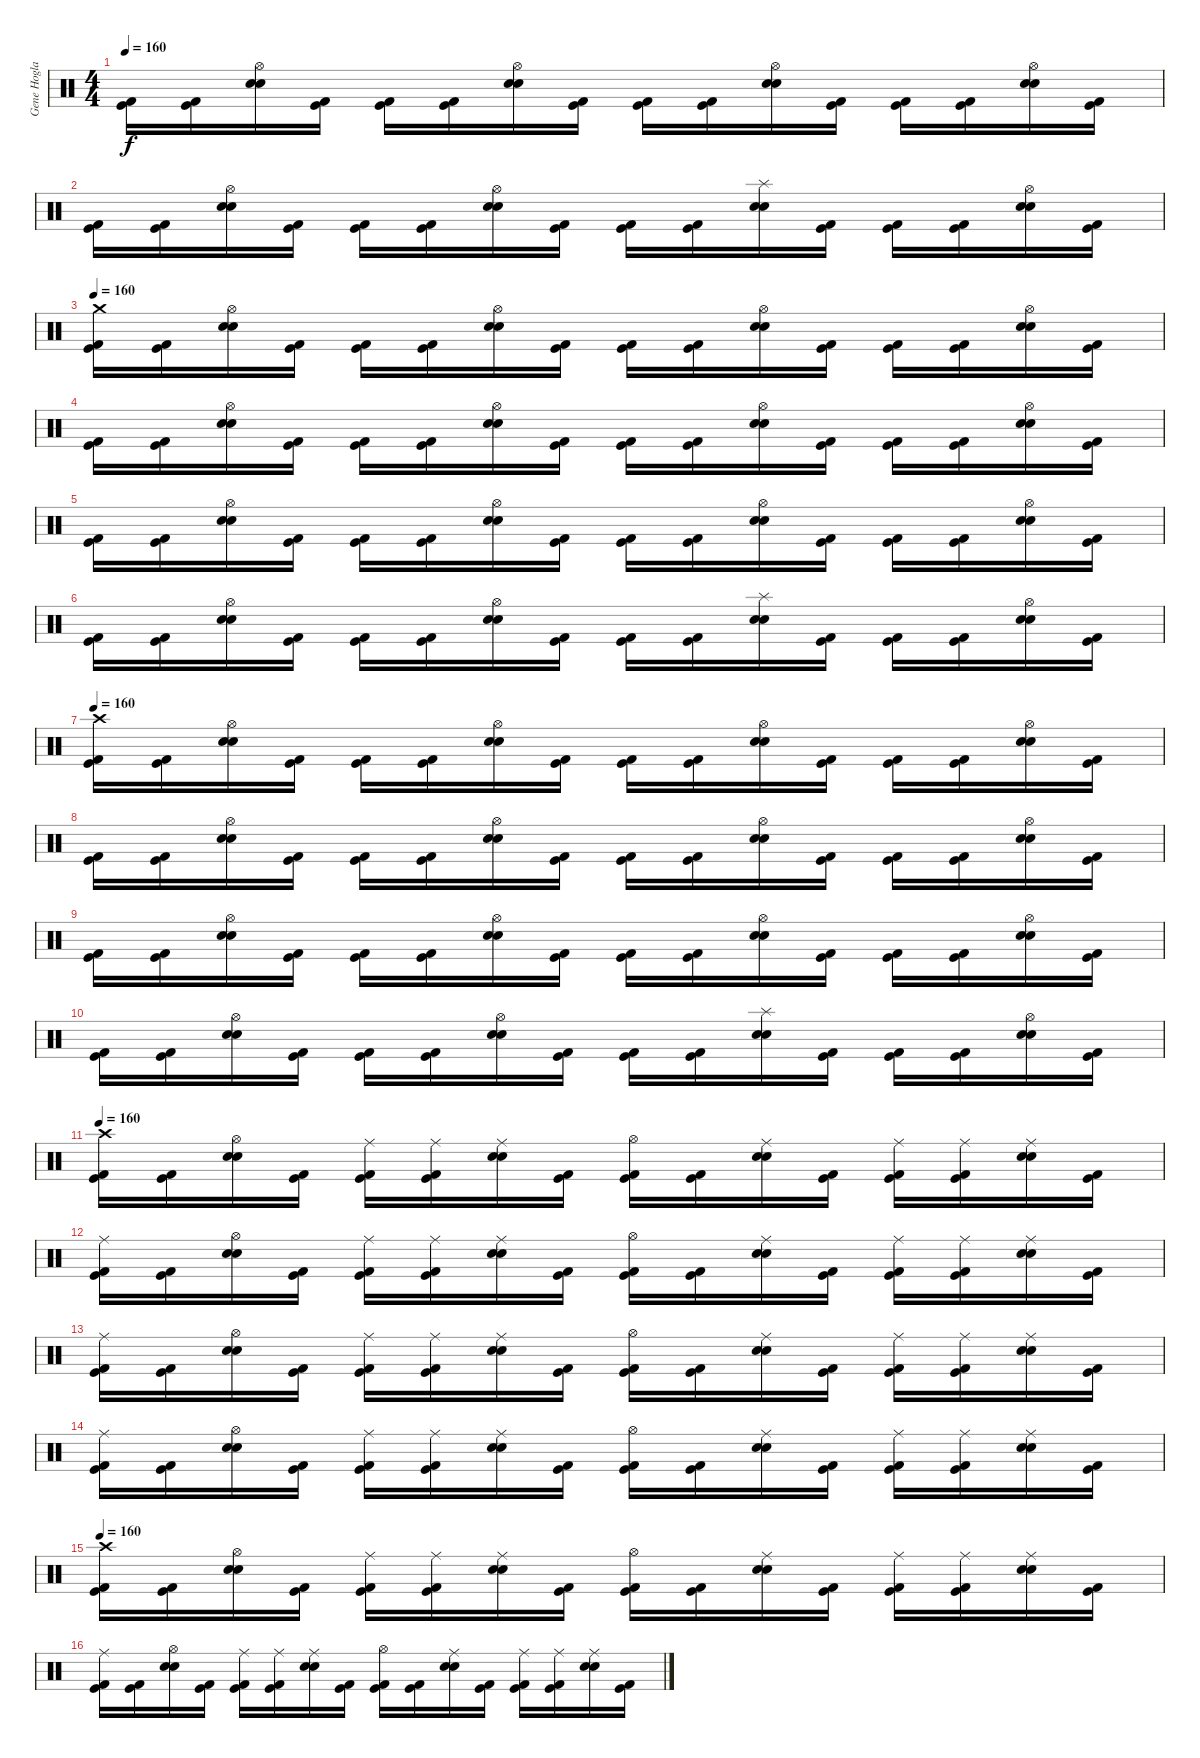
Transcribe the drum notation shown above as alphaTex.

\track ("Gene Hoglan" "Gene Hogla") {instrument percussion}
\staff {score}
\articulation defaults
\ts (4 4)
\tempo 160
\clef neutral
\ks c
("Kick (hit) 2" "Kick (hit)").16{dy f} ("Kick (hit) 2" "Kick (hit)").16 ("Hi-Hat (open)" "Snare (hit) 2" "Electric Snare (hit)").16 ("Kick (hit) 2" "Kick (hit)").16 ("Kick (hit) 2" "Kick (hit)").16 ("Kick (hit) 2" "Kick (hit)").16 ("Hi-Hat (open)" "Snare (hit) 2" "Electric Snare (hit)").16 ("Kick (hit) 2" "Kick (hit)").16 ("Kick (hit) 2" "Kick (hit)").16 ("Kick (hit) 2" "Kick (hit)").16 ("Hi-Hat (open)" "Snare (hit) 2" "Electric Snare (hit)").16 ("Kick (hit) 2" "Kick (hit)").16 ("Kick (hit) 2" "Kick (hit)").16 ("Kick (hit) 2" "Kick (hit)").16 ("Hi-Hat (open)" "Snare (hit) 2" "Electric Snare (hit)").16 ("Kick (hit) 2" "Kick (hit)").16 |
("Kick (hit) 2" "Kick (hit)").16 ("Kick (hit) 2" "Kick (hit)").16 ("Hi-Hat (open)" "Snare (hit) 2" "Electric Snare (hit)").16 ("Kick (hit) 2" "Kick (hit)").16 ("Kick (hit) 2" "Kick (hit)").16 ("Kick (hit) 2" "Kick (hit)").16 ("Hi-Hat (open)" "Snare (hit) 2" "Electric Snare (hit)").16 ("Kick (hit) 2" "Kick (hit)").16 ("Kick (hit) 2" "Kick (hit)").16 ("Kick (hit) 2" "Kick (hit)").16 ("Splash (hit)" "Snare (hit) 2" "Electric Snare (hit)").16 ("Kick (hit) 2" "Kick (hit)").16 ("Kick (hit) 2" "Kick (hit)").16 ("Kick (hit) 2" "Kick (hit)").16 ("Hi-Hat (open)" "Snare (hit) 2" "Electric Snare (hit)").16 ("Kick (hit) 2" "Kick (hit)").16 |
\tempo 160
("Crash medium (hit)" "Kick (hit) 2" "Kick (hit)").16 ("Kick (hit) 2" "Kick (hit)").16 ("Hi-Hat (open)" "Snare (hit) 2" "Electric Snare (hit)").16 ("Kick (hit) 2" "Kick (hit)").16 ("Kick (hit) 2" "Kick (hit)").16 ("Kick (hit) 2" "Kick (hit)").16 ("Hi-Hat (open)" "Snare (hit) 2" "Electric Snare (hit)").16 ("Kick (hit) 2" "Kick (hit)").16 ("Kick (hit) 2" "Kick (hit)").16 ("Kick (hit) 2" "Kick (hit)").16 ("Hi-Hat (open)" "Snare (hit) 2" "Electric Snare (hit)").16 ("Kick (hit) 2" "Kick (hit)").16 ("Kick (hit) 2" "Kick (hit)").16 ("Kick (hit) 2" "Kick (hit)").16 ("Hi-Hat (open)" "Snare (hit) 2" "Electric Snare (hit)").16 ("Kick (hit) 2" "Kick (hit)").16 |
("Kick (hit) 2" "Kick (hit)").16 ("Kick (hit) 2" "Kick (hit)").16 ("Hi-Hat (open)" "Snare (hit) 2" "Electric Snare (hit)").16 ("Kick (hit) 2" "Kick (hit)").16 ("Kick (hit) 2" "Kick (hit)").16 ("Kick (hit) 2" "Kick (hit)").16 ("Hi-Hat (open)" "Snare (hit) 2" "Electric Snare (hit)").16 ("Kick (hit) 2" "Kick (hit)").16 ("Kick (hit) 2" "Kick (hit)").16 ("Kick (hit) 2" "Kick (hit)").16 ("Hi-Hat (open)" "Snare (hit) 2" "Electric Snare (hit)").16 ("Kick (hit) 2" "Kick (hit)").16 ("Kick (hit) 2" "Kick (hit)").16 ("Kick (hit) 2" "Kick (hit)").16 ("Hi-Hat (open)" "Snare (hit) 2" "Electric Snare (hit)").16 ("Kick (hit) 2" "Kick (hit)").16 |
("Kick (hit) 2" "Kick (hit)").16 ("Kick (hit) 2" "Kick (hit)").16 ("Hi-Hat (open)" "Snare (hit) 2" "Electric Snare (hit)").16 ("Kick (hit) 2" "Kick (hit)").16 ("Kick (hit) 2" "Kick (hit)").16 ("Kick (hit) 2" "Kick (hit)").16 ("Hi-Hat (open)" "Snare (hit) 2" "Electric Snare (hit)").16 ("Kick (hit) 2" "Kick (hit)").16 ("Kick (hit) 2" "Kick (hit)").16 ("Kick (hit) 2" "Kick (hit)").16 ("Hi-Hat (open)" "Snare (hit) 2" "Electric Snare (hit)").16 ("Kick (hit) 2" "Kick (hit)").16 ("Kick (hit) 2" "Kick (hit)").16 ("Kick (hit) 2" "Kick (hit)").16 ("Hi-Hat (open)" "Snare (hit) 2" "Electric Snare (hit)").16 ("Kick (hit) 2" "Kick (hit)").16 |
("Kick (hit) 2" "Kick (hit)").16 ("Kick (hit) 2" "Kick (hit)").16 ("Hi-Hat (open)" "Snare (hit) 2" "Electric Snare (hit)").16 ("Kick (hit) 2" "Kick (hit)").16 ("Kick (hit) 2" "Kick (hit)").16 ("Kick (hit) 2" "Kick (hit)").16 ("Hi-Hat (open)" "Snare (hit) 2" "Electric Snare (hit)").16 ("Kick (hit) 2" "Kick (hit)").16 ("Kick (hit) 2" "Kick (hit)").16 ("Kick (hit) 2" "Kick (hit)").16 ("Splash (hit)" "Snare (hit) 2" "Electric Snare (hit)").16 ("Kick (hit) 2" "Kick (hit)").16 ("Kick (hit) 2" "Kick (hit)").16 ("Kick (hit) 2" "Kick (hit)").16 ("Hi-Hat (open)" "Snare (hit) 2" "Electric Snare (hit)").16 ("Kick (hit) 2" "Kick (hit)").16 |
\tempo 160
("Crash high (hit)" "Kick (hit) 2" "Kick (hit)").16 ("Kick (hit) 2" "Kick (hit)").16 ("Hi-Hat (open)" "Snare (hit) 2" "Electric Snare (hit)").16 ("Kick (hit) 2" "Kick (hit)").16 ("Kick (hit) 2" "Kick (hit)").16 ("Kick (hit) 2" "Kick (hit)").16 ("Hi-Hat (open)" "Snare (hit) 2" "Electric Snare (hit)").16 ("Kick (hit) 2" "Kick (hit)").16 ("Kick (hit) 2" "Kick (hit)").16 ("Kick (hit) 2" "Kick (hit)").16 ("Hi-Hat (open)" "Snare (hit) 2" "Electric Snare (hit)").16 ("Kick (hit) 2" "Kick (hit)").16 ("Kick (hit) 2" "Kick (hit)").16 ("Kick (hit) 2" "Kick (hit)").16 ("Hi-Hat (open)" "Snare (hit) 2" "Electric Snare (hit)").16 ("Kick (hit) 2" "Kick (hit)").16 |
("Kick (hit) 2" "Kick (hit)").16 ("Kick (hit) 2" "Kick (hit)").16 ("Hi-Hat (open)" "Snare (hit) 2" "Electric Snare (hit)").16 ("Kick (hit) 2" "Kick (hit)").16 ("Kick (hit) 2" "Kick (hit)").16 ("Kick (hit) 2" "Kick (hit)").16 ("Hi-Hat (open)" "Snare (hit) 2" "Electric Snare (hit)").16 ("Kick (hit) 2" "Kick (hit)").16 ("Kick (hit) 2" "Kick (hit)").16 ("Kick (hit) 2" "Kick (hit)").16 ("Hi-Hat (open)" "Snare (hit) 2" "Electric Snare (hit)").16 ("Kick (hit) 2" "Kick (hit)").16 ("Kick (hit) 2" "Kick (hit)").16 ("Kick (hit) 2" "Kick (hit)").16 ("Hi-Hat (open)" "Snare (hit) 2" "Electric Snare (hit)").16 ("Kick (hit) 2" "Kick (hit)").16 |
("Kick (hit) 2" "Kick (hit)").16 ("Kick (hit) 2" "Kick (hit)").16 ("Hi-Hat (open)" "Snare (hit) 2" "Electric Snare (hit)").16 ("Kick (hit) 2" "Kick (hit)").16 ("Kick (hit) 2" "Kick (hit)").16 ("Kick (hit) 2" "Kick (hit)").16 ("Hi-Hat (open)" "Snare (hit) 2" "Electric Snare (hit)").16 ("Kick (hit) 2" "Kick (hit)").16 ("Kick (hit) 2" "Kick (hit)").16 ("Kick (hit) 2" "Kick (hit)").16 ("Hi-Hat (open)" "Snare (hit) 2" "Electric Snare (hit)").16 ("Kick (hit) 2" "Kick (hit)").16 ("Kick (hit) 2" "Kick (hit)").16 ("Kick (hit) 2" "Kick (hit)").16 ("Hi-Hat (open)" "Snare (hit) 2" "Electric Snare (hit)").16 ("Kick (hit) 2" "Kick (hit)").16 |
("Kick (hit) 2" "Kick (hit)").16 ("Kick (hit) 2" "Kick (hit)").16 ("Hi-Hat (open)" "Snare (hit) 2" "Electric Snare (hit)").16 ("Kick (hit) 2" "Kick (hit)").16 ("Kick (hit) 2" "Kick (hit)").16 ("Kick (hit) 2" "Kick (hit)").16 ("Hi-Hat (open)" "Snare (hit) 2" "Electric Snare (hit)").16 ("Kick (hit) 2" "Kick (hit)").16 ("Kick (hit) 2" "Kick (hit)").16 ("Kick (hit) 2" "Kick (hit)").16 ("Splash (hit)" "Snare (hit) 2" "Electric Snare (hit)").16 ("Kick (hit) 2" "Kick (hit)").16 ("Kick (hit) 2" "Kick (hit)").16 ("Kick (hit) 2" "Kick (hit)").16 ("Hi-Hat (open)" "Snare (hit) 2" "Electric Snare (hit)").16 ("Kick (hit) 2" "Kick (hit)").16 |
\tempo 160
("Crash high (hit)" "Kick (hit) 2" "Kick (hit)").16 ("Kick (hit) 2" "Kick (hit)").16 ("Hi-Hat (open)" "Snare (hit) 2" "Electric Snare (hit)").16 ("Kick (hit) 2" "Kick (hit)").16 ("Ride (middle)" "Kick (hit) 2" "Kick (hit)").16 ("Ride (middle)" "Kick (hit) 2" "Kick (hit)").16 ("Ride (middle)" "Snare (hit) 2" "Electric Snare (hit)").16 ("Kick (hit) 2" "Kick (hit)").16 ("Hi-Hat (open)" "Kick (hit) 2" "Kick (hit)").16 ("Kick (hit) 2" "Kick (hit)").16 ("Ride (middle)" "Snare (hit) 2" "Electric Snare (hit)").16 ("Kick (hit) 2" "Kick (hit)").16 ("Ride (middle)" "Kick (hit) 2" "Kick (hit)").16 ("Ride (middle)" "Kick (hit) 2" "Kick (hit)").16 ("Ride (middle)" "Snare (hit) 2" "Electric Snare (hit)").16 ("Kick (hit) 2" "Kick (hit)").16 |
("Ride (middle)" "Kick (hit) 2" "Kick (hit)").16 ("Kick (hit) 2" "Kick (hit)").16 ("Hi-Hat (open)" "Snare (hit) 2" "Electric Snare (hit)").16 ("Kick (hit) 2" "Kick (hit)").16 ("Ride (middle)" "Kick (hit) 2" "Kick (hit)").16 ("Ride (middle)" "Kick (hit) 2" "Kick (hit)").16 ("Ride (middle)" "Snare (hit) 2" "Electric Snare (hit)").16 ("Kick (hit) 2" "Kick (hit)").16 ("Hi-Hat (open)" "Kick (hit) 2" "Kick (hit)").16 ("Kick (hit) 2" "Kick (hit)").16 ("Ride (middle)" "Snare (hit) 2" "Electric Snare (hit)").16 ("Kick (hit) 2" "Kick (hit)").16 ("Ride (middle)" "Kick (hit) 2" "Kick (hit)").16 ("Ride (middle)" "Kick (hit) 2" "Kick (hit)").16 ("Ride (middle)" "Snare (hit) 2" "Electric Snare (hit)").16 ("Kick (hit) 2" "Kick (hit)").16 |
("Ride (middle)" "Kick (hit) 2" "Kick (hit)").16 ("Kick (hit) 2" "Kick (hit)").16 ("Hi-Hat (open)" "Snare (hit) 2" "Electric Snare (hit)").16 ("Kick (hit) 2" "Kick (hit)").16 ("Ride (middle)" "Kick (hit) 2" "Kick (hit)").16 ("Ride (middle)" "Kick (hit) 2" "Kick (hit)").16 ("Ride (middle)" "Snare (hit) 2" "Electric Snare (hit)").16 ("Kick (hit) 2" "Kick (hit)").16 ("Hi-Hat (open)" "Kick (hit) 2" "Kick (hit)").16 ("Kick (hit) 2" "Kick (hit)").16 ("Ride (middle)" "Snare (hit) 2" "Electric Snare (hit)").16 ("Kick (hit) 2" "Kick (hit)").16 ("Ride (middle)" "Kick (hit) 2" "Kick (hit)").16 ("Ride (middle)" "Kick (hit) 2" "Kick (hit)").16 ("Ride (middle)" "Snare (hit) 2" "Electric Snare (hit)").16 ("Kick (hit) 2" "Kick (hit)").16 |
("Ride (middle)" "Kick (hit) 2" "Kick (hit)").16 ("Kick (hit) 2" "Kick (hit)").16 ("Hi-Hat (open)" "Snare (hit) 2" "Electric Snare (hit)").16 ("Kick (hit) 2" "Kick (hit)").16 ("Ride (middle)" "Kick (hit) 2" "Kick (hit)").16 ("Ride (middle)" "Kick (hit) 2" "Kick (hit)").16 ("Ride (middle)" "Snare (hit) 2" "Electric Snare (hit)").16 ("Kick (hit) 2" "Kick (hit)").16 ("Hi-Hat (open)" "Kick (hit) 2" "Kick (hit)").16 ("Kick (hit) 2" "Kick (hit)").16 ("Ride (middle)" "Snare (hit) 2" "Electric Snare (hit)").16 ("Kick (hit) 2" "Kick (hit)").16 ("Ride (middle)" "Kick (hit) 2" "Kick (hit)").16 ("Ride (middle)" "Kick (hit) 2" "Kick (hit)").16 ("Ride (middle)" "Snare (hit) 2" "Electric Snare (hit)").16 ("Kick (hit) 2" "Kick (hit)").16 |
\tempo 160
("Crash high (hit)" "Kick (hit) 2" "Kick (hit)").16 ("Kick (hit) 2" "Kick (hit)").16 ("Hi-Hat (open)" "Snare (hit) 2" "Electric Snare (hit)").16 ("Kick (hit) 2" "Kick (hit)").16 ("Ride (middle)" "Kick (hit) 2" "Kick (hit)").16 ("Ride (middle)" "Kick (hit) 2" "Kick (hit)").16 ("Ride (middle)" "Snare (hit) 2" "Electric Snare (hit)").16 ("Kick (hit) 2" "Kick (hit)").16 ("Hi-Hat (open)" "Kick (hit) 2" "Kick (hit)").16 ("Kick (hit) 2" "Kick (hit)").16 ("Ride (middle)" "Snare (hit) 2" "Electric Snare (hit)").16 ("Kick (hit) 2" "Kick (hit)").16 ("Ride (middle)" "Kick (hit) 2" "Kick (hit)").16 ("Ride (middle)" "Kick (hit) 2" "Kick (hit)").16 ("Ride (middle)" "Snare (hit) 2" "Electric Snare (hit)").16 ("Kick (hit) 2" "Kick (hit)").16 |
("Ride (middle)" "Kick (hit) 2" "Kick (hit)").16 ("Kick (hit) 2" "Kick (hit)").16 ("Hi-Hat (open)" "Snare (hit) 2" "Electric Snare (hit)").16 ("Kick (hit) 2" "Kick (hit)").16 ("Ride (middle)" "Kick (hit) 2" "Kick (hit)").16 ("Ride (middle)" "Kick (hit) 2" "Kick (hit)").16 ("Ride (middle)" "Snare (hit) 2" "Electric Snare (hit)").16 ("Kick (hit) 2" "Kick (hit)").16 ("Hi-Hat (open)" "Kick (hit) 2" "Kick (hit)").16 ("Kick (hit) 2" "Kick (hit)").16 ("Ride (middle)" "Snare (hit) 2" "Electric Snare (hit)").16 ("Kick (hit) 2" "Kick (hit)").16 ("Ride (middle)" "Kick (hit) 2" "Kick (hit)").16 ("Ride (middle)" "Kick (hit) 2" "Kick (hit)").16 ("Ride (middle)" "Snare (hit) 2" "Electric Snare (hit)").16 ("Kick (hit) 2" "Kick (hit)").16
